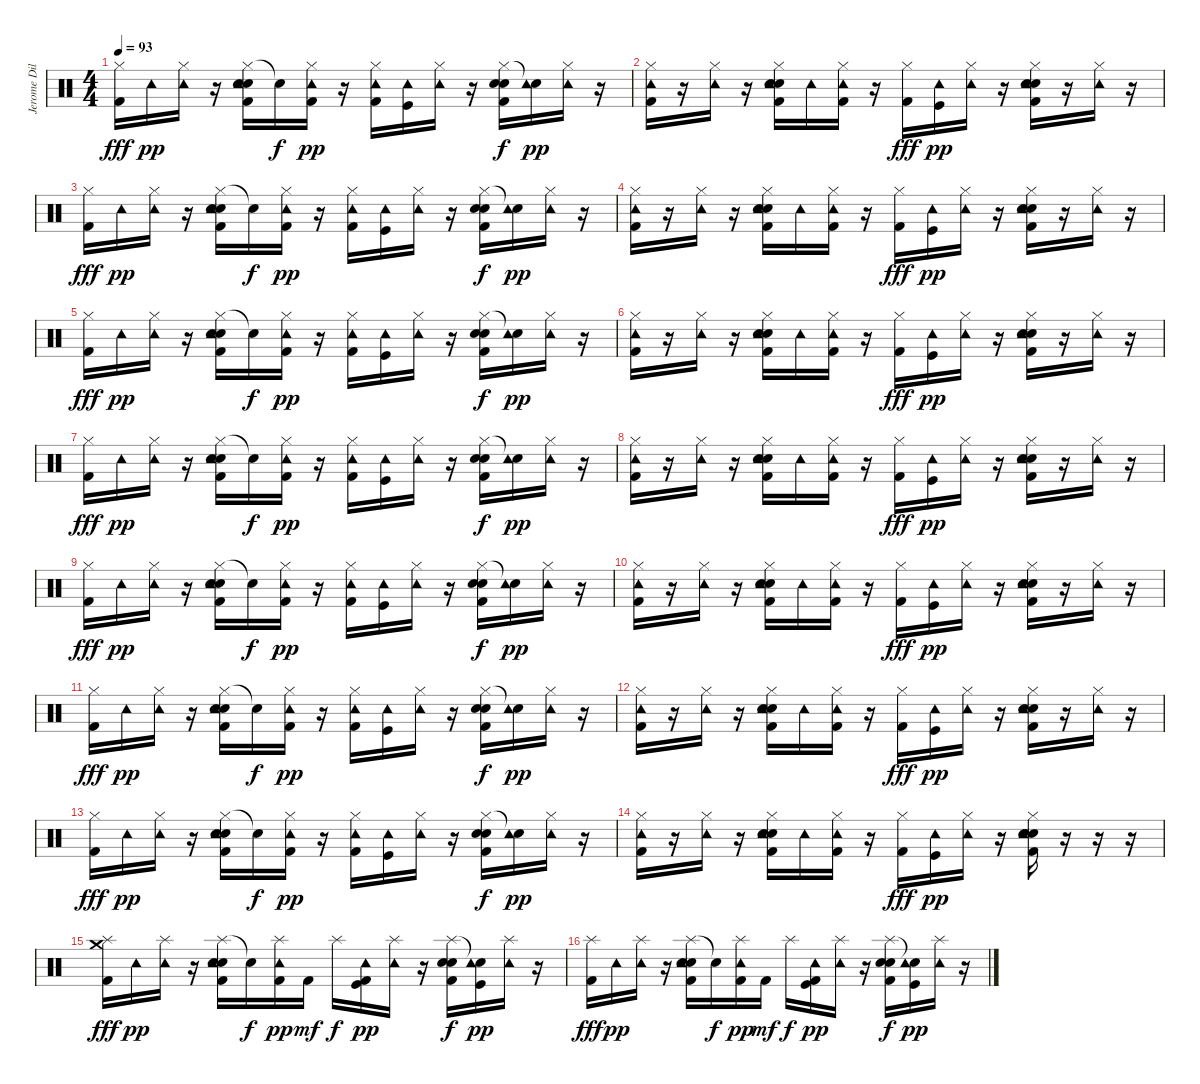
\track ("Jerome Dillon" "Jerome Dil") {instrument percussion}
\staff {score}
\articulation defaults
\ts (4 4)
\tempo 93
\clef neutral
\ks c
("Hi-Hat (closed)" "Kick (hit) 2").16{dy fff} "Tambourine (hit)".16{dy pp} ("Hi-Hat (closed)" "Tambourine (hit)").16 r.16 ("Hi-Hat (closed)" "Hand Clap (hit)" "Snare (hit) 2" "Kick (hit) 2" "Tambourine (hit)").16 "Snare (hit)"{t}.16{dy f} ("Hi-Hat (closed)" "Kick (hit) 2" "Tambourine (hit)").16{dy pp} r.16 ("Hi-Hat (closed)" "Kick (hit) 2" "Tambourine (hit)").16 ("Kick (hit)" "Tambourine (hit)").16 ("Hi-Hat (closed)" "Tambourine (hit)").16 r.16 ("Hi-Hat (closed)" "Hand Clap (hit)" "Snare (hit) 2" "Kick (hit) 2").16{dy f} ("Snare (hit)"{t} "Tambourine (hit)").16{dy pp} ("Hi-Hat (closed)" "Tambourine (hit)").16 r.16 |
("Hi-Hat (closed)" "Kick (hit) 2" "Tambourine (hit)").16 r.16 ("Hi-Hat (closed)" "Tambourine (hit)").16 r.16 ("Hi-Hat (closed)" "Hand Clap (hit)" "Snare (hit) 2" "Kick (hit) 2" "Tambourine (hit)").16 "Tambourine (hit)".16 ("Hi-Hat (closed)" "Kick (hit) 2" "Tambourine (hit)").16 r.16 ("Hi-Hat (closed)" "Kick (hit) 2").16{dy fff} ("Kick (hit)" "Tambourine (hit)").16{dy pp} ("Hi-Hat (closed)" "Tambourine (hit)").16 r.16 ("Hi-Hat (closed)" "Hand Clap (hit)" "Snare (hit) 2" "Kick (hit) 2" "Tambourine (hit)").16 r.16 ("Hi-Hat (closed)" "Tambourine (hit)").16 r.16 |
("Hi-Hat (closed)" "Kick (hit) 2").16{dy fff} "Tambourine (hit)".16{dy pp} ("Hi-Hat (closed)" "Tambourine (hit)").16 r.16 ("Hi-Hat (closed)" "Hand Clap (hit)" "Snare (hit) 2" "Kick (hit) 2" "Tambourine (hit)").16 "Snare (hit)"{t}.16{dy f} ("Hi-Hat (closed)" "Kick (hit) 2" "Tambourine (hit)").16{dy pp} r.16 ("Hi-Hat (closed)" "Kick (hit) 2" "Tambourine (hit)").16 ("Kick (hit)" "Tambourine (hit)").16 ("Hi-Hat (closed)" "Tambourine (hit)").16 r.16 ("Hi-Hat (closed)" "Hand Clap (hit)" "Snare (hit) 2" "Kick (hit) 2").16{dy f} ("Snare (hit)"{t} "Tambourine (hit)").16{dy pp} ("Hi-Hat (closed)" "Tambourine (hit)").16 r.16 |
("Hi-Hat (closed)" "Kick (hit) 2" "Tambourine (hit)").16 r.16 ("Hi-Hat (closed)" "Tambourine (hit)").16 r.16 ("Hi-Hat (closed)" "Hand Clap (hit)" "Snare (hit) 2" "Kick (hit) 2" "Tambourine (hit)").16 "Tambourine (hit)".16 ("Hi-Hat (closed)" "Kick (hit) 2" "Tambourine (hit)").16 r.16 ("Hi-Hat (closed)" "Kick (hit) 2").16{dy fff} ("Kick (hit)" "Tambourine (hit)").16{dy pp} ("Hi-Hat (closed)" "Tambourine (hit)").16 r.16 ("Hi-Hat (closed)" "Hand Clap (hit)" "Snare (hit) 2" "Kick (hit) 2" "Tambourine (hit)").16 r.16 ("Hi-Hat (closed)" "Tambourine (hit)").16 r.16 |
("Hi-Hat (closed)" "Kick (hit) 2").16{dy fff} "Tambourine (hit)".16{dy pp} ("Hi-Hat (closed)" "Tambourine (hit)").16 r.16 ("Hi-Hat (closed)" "Hand Clap (hit)" "Snare (hit) 2" "Kick (hit) 2" "Tambourine (hit)").16 "Snare (hit)"{t}.16{dy f} ("Hi-Hat (closed)" "Kick (hit) 2" "Tambourine (hit)").16{dy pp} r.16 ("Hi-Hat (closed)" "Kick (hit) 2" "Tambourine (hit)").16 ("Kick (hit)" "Tambourine (hit)").16 ("Hi-Hat (closed)" "Tambourine (hit)").16 r.16 ("Hi-Hat (closed)" "Hand Clap (hit)" "Snare (hit) 2" "Kick (hit) 2").16{dy f} ("Snare (hit)"{t} "Tambourine (hit)").16{dy pp} ("Hi-Hat (closed)" "Tambourine (hit)").16 r.16 |
("Hi-Hat (closed)" "Kick (hit) 2" "Tambourine (hit)").16 r.16 ("Hi-Hat (closed)" "Tambourine (hit)").16 r.16 ("Hi-Hat (closed)" "Hand Clap (hit)" "Snare (hit) 2" "Kick (hit) 2" "Tambourine (hit)").16 "Tambourine (hit)".16 ("Hi-Hat (closed)" "Kick (hit) 2" "Tambourine (hit)").16 r.16 ("Hi-Hat (closed)" "Kick (hit) 2").16{dy fff} ("Kick (hit)" "Tambourine (hit)").16{dy pp} ("Hi-Hat (closed)" "Tambourine (hit)").16 r.16 ("Hi-Hat (closed)" "Hand Clap (hit)" "Snare (hit) 2" "Kick (hit) 2" "Tambourine (hit)").16 r.16 ("Hi-Hat (closed)" "Tambourine (hit)").16 r.16 |
("Hi-Hat (closed)" "Kick (hit) 2").16{dy fff} "Tambourine (hit)".16{dy pp} ("Hi-Hat (closed)" "Tambourine (hit)").16 r.16 ("Hi-Hat (closed)" "Hand Clap (hit)" "Snare (hit) 2" "Kick (hit) 2" "Tambourine (hit)").16 "Snare (hit)"{t}.16{dy f} ("Hi-Hat (closed)" "Kick (hit) 2" "Tambourine (hit)").16{dy pp} r.16 ("Hi-Hat (closed)" "Kick (hit) 2" "Tambourine (hit)").16 ("Kick (hit)" "Tambourine (hit)").16 ("Hi-Hat (closed)" "Tambourine (hit)").16 r.16 ("Hi-Hat (closed)" "Hand Clap (hit)" "Snare (hit) 2" "Kick (hit) 2").16{dy f} ("Snare (hit)"{t} "Tambourine (hit)").16{dy pp} ("Hi-Hat (closed)" "Tambourine (hit)").16 r.16 |
("Hi-Hat (closed)" "Kick (hit) 2" "Tambourine (hit)").16 r.16 ("Hi-Hat (closed)" "Tambourine (hit)").16 r.16 ("Hi-Hat (closed)" "Hand Clap (hit)" "Snare (hit) 2" "Kick (hit) 2" "Tambourine (hit)").16 "Tambourine (hit)".16 ("Hi-Hat (closed)" "Kick (hit) 2" "Tambourine (hit)").16 r.16 ("Hi-Hat (closed)" "Kick (hit) 2").16{dy fff} ("Kick (hit)" "Tambourine (hit)").16{dy pp} ("Hi-Hat (closed)" "Tambourine (hit)").16 r.16 ("Hi-Hat (closed)" "Hand Clap (hit)" "Snare (hit) 2" "Kick (hit) 2" "Tambourine (hit)").16 r.16 ("Hi-Hat (closed)" "Tambourine (hit)").16 r.16 |
("Hi-Hat (closed)" "Kick (hit) 2").16{dy fff} "Tambourine (hit)".16{dy pp} ("Hi-Hat (closed)" "Tambourine (hit)").16 r.16 ("Hi-Hat (closed)" "Hand Clap (hit)" "Snare (hit) 2" "Kick (hit) 2" "Tambourine (hit)").16 "Snare (hit)"{t}.16{dy f} ("Hi-Hat (closed)" "Kick (hit) 2" "Tambourine (hit)").16{dy pp} r.16 ("Hi-Hat (closed)" "Kick (hit) 2" "Tambourine (hit)").16 ("Kick (hit)" "Tambourine (hit)").16 ("Hi-Hat (closed)" "Tambourine (hit)").16 r.16 ("Hi-Hat (closed)" "Hand Clap (hit)" "Snare (hit) 2" "Kick (hit) 2").16{dy f} ("Snare (hit)"{t} "Tambourine (hit)").16{dy pp} ("Hi-Hat (closed)" "Tambourine (hit)").16 r.16 |
("Hi-Hat (closed)" "Kick (hit) 2" "Tambourine (hit)").16 r.16 ("Hi-Hat (closed)" "Tambourine (hit)").16 r.16 ("Hi-Hat (closed)" "Hand Clap (hit)" "Snare (hit) 2" "Kick (hit) 2" "Tambourine (hit)").16 "Tambourine (hit)".16 ("Hi-Hat (closed)" "Kick (hit) 2" "Tambourine (hit)").16 r.16 ("Hi-Hat (closed)" "Kick (hit) 2").16{dy fff} ("Kick (hit)" "Tambourine (hit)").16{dy pp} ("Hi-Hat (closed)" "Tambourine (hit)").16 r.16 ("Hi-Hat (closed)" "Hand Clap (hit)" "Snare (hit) 2" "Kick (hit) 2" "Tambourine (hit)").16 r.16 ("Hi-Hat (closed)" "Tambourine (hit)").16 r.16 |
("Hi-Hat (closed)" "Kick (hit) 2").16{dy fff} "Tambourine (hit)".16{dy pp} ("Hi-Hat (closed)" "Tambourine (hit)").16 r.16 ("Hi-Hat (closed)" "Hand Clap (hit)" "Snare (hit) 2" "Kick (hit) 2" "Tambourine (hit)").16 "Snare (hit)"{t}.16{dy f} ("Hi-Hat (closed)" "Kick (hit) 2" "Tambourine (hit)").16{dy pp} r.16 ("Hi-Hat (closed)" "Kick (hit) 2" "Tambourine (hit)").16 ("Kick (hit)" "Tambourine (hit)").16 ("Hi-Hat (closed)" "Tambourine (hit)").16 r.16 ("Hi-Hat (closed)" "Hand Clap (hit)" "Snare (hit) 2" "Kick (hit) 2").16{dy f} ("Snare (hit)"{t} "Tambourine (hit)").16{dy pp} ("Hi-Hat (closed)" "Tambourine (hit)").16 r.16 |
("Hi-Hat (closed)" "Kick (hit) 2" "Tambourine (hit)").16 r.16 ("Hi-Hat (closed)" "Tambourine (hit)").16 r.16 ("Hi-Hat (closed)" "Hand Clap (hit)" "Snare (hit) 2" "Kick (hit) 2" "Tambourine (hit)").16 "Tambourine (hit)".16 ("Hi-Hat (closed)" "Kick (hit) 2" "Tambourine (hit)").16 r.16 ("Hi-Hat (closed)" "Kick (hit) 2").16{dy fff} ("Kick (hit)" "Tambourine (hit)").16{dy pp} ("Hi-Hat (closed)" "Tambourine (hit)").16 r.16 ("Hi-Hat (closed)" "Hand Clap (hit)" "Snare (hit) 2" "Kick (hit) 2" "Tambourine (hit)").16 r.16 ("Hi-Hat (closed)" "Tambourine (hit)").16 r.16 |
("Hi-Hat (closed)" "Kick (hit) 2").16{dy fff} "Tambourine (hit)".16{dy pp} ("Hi-Hat (closed)" "Tambourine (hit)").16 r.16 ("Hi-Hat (closed)" "Hand Clap (hit)" "Snare (hit) 2" "Kick (hit) 2" "Tambourine (hit)").16 "Snare (hit)"{t}.16{dy f} ("Hi-Hat (closed)" "Kick (hit) 2" "Tambourine (hit)").16{dy pp} r.16 ("Hi-Hat (closed)" "Kick (hit) 2" "Tambourine (hit)").16 ("Kick (hit)" "Tambourine (hit)").16 ("Hi-Hat (closed)" "Tambourine (hit)").16 r.16 ("Hi-Hat (closed)" "Hand Clap (hit)" "Snare (hit) 2" "Kick (hit) 2").16{dy f} ("Snare (hit)"{t} "Tambourine (hit)").16{dy pp} ("Hi-Hat (closed)" "Tambourine (hit)").16 r.16 |
("Hi-Hat (closed)" "Kick (hit) 2" "Tambourine (hit)").16 r.16 ("Hi-Hat (closed)" "Tambourine (hit)").16 r.16 ("Hi-Hat (closed)" "Hand Clap (hit)" "Snare (hit) 2" "Kick (hit) 2" "Tambourine (hit)").16 "Tambourine (hit)".16 ("Hi-Hat (closed)" "Kick (hit) 2" "Tambourine (hit)").16 r.16 ("Hi-Hat (closed)" "Kick (hit) 2").16{dy fff} ("Kick (hit)" "Tambourine (hit)").16{dy pp} ("Hi-Hat (closed)" "Tambourine (hit)").16 r.16 ("Hi-Hat (closed)" "Hand Clap (hit)" "Hand Clap (hit)" "Snare (hit) 2" "Kick (hit) 2" "Tambourine (hit)").16 r.16 r.16 r.16 |
("Splash (hit)" "Crash medium (hit)" "Kick (hit) 2").16{dy fff} "Tambourine (hit)".16{dy pp} ("Splash (hit)" "Tambourine (hit)").16 r.16 ("Splash (hit)" "Hand Clap (hit)" "Snare (hit) 2" "Kick (hit) 2" "Tambourine (hit)").16 "Snare (hit)"{t}.16{dy f} ("Splash (hit)" "Kick (hit) 2" "Tambourine (hit)").16{dy pp} "Kick (hit) 2".16{dy mf} "Splash (hit)".16{dy f} ("Kick (hit)" "Kick (hit) 2" "Tambourine (hit)").16{dy pp} ("Splash (hit)" "Tambourine (hit)").16 r.16 ("Splash (hit)" "Hand Clap (hit)" "Snare (hit) 2" "Kick (hit) 2").16{dy f} ("Snare (hit)"{t} "Kick (hit)" "Tambourine (hit)").16{dy pp} ("Splash (hit)" "Tambourine (hit)").16 r.16 |
("Splash (hit)" "Kick (hit) 2").16{dy fff} "Tambourine (hit)".16{dy pp} ("Splash (hit)" "Tambourine (hit)").16 r.16 ("Splash (hit)" "Hand Clap (hit)" "Snare (hit) 2" "Kick (hit) 2" "Tambourine (hit)").16 "Snare (hit)"{t}.16{dy f} ("Splash (hit)" "Kick (hit) 2" "Tambourine (hit)").16{dy pp} "Kick (hit) 2".16{dy mf} "Splash (hit)".16{dy f} ("Kick (hit)" "Kick (hit) 2" "Tambourine (hit)").16{dy pp} ("Splash (hit)" "Tambourine (hit)").16 r.16 ("Splash (hit)" "Hand Clap (hit)" "Snare (hit) 2" "Kick (hit) 2").16{dy f} ("Snare (hit)"{t} "Kick (hit)" "Tambourine (hit)").16{dy pp} ("Splash (hit)" "Tambourine (hit)").16 r.16
